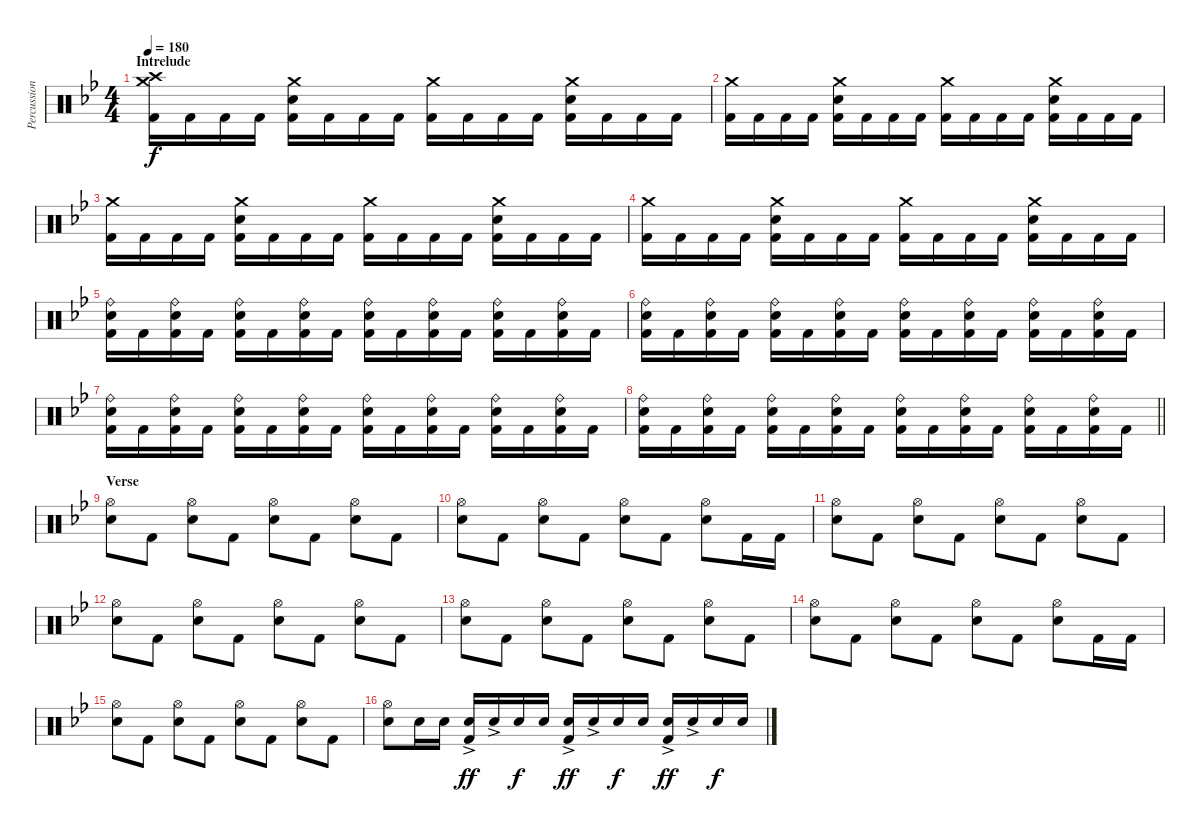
\track ("Percussion" "Percussion") {instrument percussion}
\staff {score}
\articulation defaults
\ts (4 4)
\section ("" "Intrelude")
\tempo 180
\clef neutral
\ks bb
("Crash medium (hit)" "Crash high (hit)" "Kick (hit) 2").16{dy f} "Kick (hit) 2".16 "Kick (hit) 2".16 "Kick (hit) 2".16 ("Crash medium (hit)" "Electric Snare (hit)" "Kick (hit) 2").16 "Kick (hit) 2".16 "Kick (hit) 2".16 "Kick (hit) 2".16 ("Crash medium (hit)" "Kick (hit) 2").16 "Kick (hit) 2".16 "Kick (hit) 2".16 "Kick (hit) 2".16 ("Crash medium (hit)" "Electric Snare (hit)" "Kick (hit) 2").16 "Kick (hit) 2".16 "Kick (hit) 2".16 "Kick (hit) 2".16 |
("Crash medium (hit)" "Kick (hit) 2").16 "Kick (hit) 2".16 "Kick (hit) 2".16 "Kick (hit) 2".16 ("Crash medium (hit)" "Electric Snare (hit)" "Kick (hit) 2").16 "Kick (hit) 2".16 "Kick (hit) 2".16 "Kick (hit) 2".16 ("Crash medium (hit)" "Kick (hit) 2").16 "Kick (hit) 2".16 "Kick (hit) 2".16 "Kick (hit) 2".16 ("Crash medium (hit)" "Electric Snare (hit)" "Kick (hit) 2").16 "Kick (hit) 2".16 "Kick (hit) 2".16 "Kick (hit) 2".16 |
("Crash medium (hit)" "Kick (hit) 2").16 "Kick (hit) 2".16 "Kick (hit) 2".16 "Kick (hit) 2".16 ("Crash medium (hit)" "Electric Snare (hit)" "Kick (hit) 2").16 "Kick (hit) 2".16 "Kick (hit) 2".16 "Kick (hit) 2".16 ("Crash medium (hit)" "Kick (hit) 2").16 "Kick (hit) 2".16 "Kick (hit) 2".16 "Kick (hit) 2".16 ("Crash medium (hit)" "Electric Snare (hit)" "Kick (hit) 2").16 "Kick (hit) 2".16 "Kick (hit) 2".16 "Kick (hit) 2".16 |
("Crash medium (hit)" "Kick (hit) 2").16 "Kick (hit) 2".16 "Kick (hit) 2".16 "Kick (hit) 2".16 ("Crash medium (hit)" "Electric Snare (hit)" "Kick (hit) 2").16 "Kick (hit) 2".16 "Kick (hit) 2".16 "Kick (hit) 2".16 ("Crash medium (hit)" "Kick (hit) 2").16 "Kick (hit) 2".16 "Kick (hit) 2".16 "Kick (hit) 2".16 ("Crash medium (hit)" "Electric Snare (hit)" "Kick (hit) 2").16 "Kick (hit) 2".16 "Kick (hit) 2".16 "Kick (hit) 2".16 |
("Ride (bell)" "Electric Snare (hit)" "Kick (hit) 2").16 "Kick (hit) 2".16 ("Ride (bell)" "Electric Snare (hit)" "Kick (hit) 2").16 "Kick (hit) 2".16 ("Ride (bell)" "Electric Snare (hit)" "Kick (hit) 2").16 "Kick (hit) 2".16 ("Ride (bell)" "Electric Snare (hit)" "Kick (hit) 2").16 "Kick (hit) 2".16 ("Ride (bell)" "Electric Snare (hit)" "Kick (hit) 2").16 "Kick (hit) 2".16 ("Ride (bell)" "Electric Snare (hit)" "Kick (hit) 2").16 "Kick (hit) 2".16 ("Ride (bell)" "Electric Snare (hit)" "Kick (hit) 2").16 "Kick (hit) 2".16 ("Ride (bell)" "Electric Snare (hit)" "Kick (hit) 2").16 "Kick (hit) 2".16 |
("Ride (bell)" "Electric Snare (hit)" "Kick (hit) 2").16 "Kick (hit) 2".16 ("Ride (bell)" "Electric Snare (hit)" "Kick (hit) 2").16 "Kick (hit) 2".16 ("Ride (bell)" "Electric Snare (hit)" "Kick (hit) 2").16 "Kick (hit) 2".16 ("Ride (bell)" "Electric Snare (hit)" "Kick (hit) 2").16 "Kick (hit) 2".16 ("Ride (bell)" "Electric Snare (hit)" "Kick (hit) 2").16 "Kick (hit) 2".16 ("Ride (bell)" "Electric Snare (hit)" "Kick (hit) 2").16 "Kick (hit) 2".16 ("Ride (bell)" "Electric Snare (hit)" "Kick (hit) 2").16 "Kick (hit) 2".16 ("Ride (bell)" "Electric Snare (hit)" "Kick (hit) 2").16 "Kick (hit) 2".16 |
("Ride (bell)" "Electric Snare (hit)" "Kick (hit) 2").16 "Kick (hit) 2".16 ("Ride (bell)" "Electric Snare (hit)" "Kick (hit) 2").16 "Kick (hit) 2".16 ("Ride (bell)" "Electric Snare (hit)" "Kick (hit) 2").16 "Kick (hit) 2".16 ("Ride (bell)" "Electric Snare (hit)" "Kick (hit) 2").16 "Kick (hit) 2".16 ("Ride (bell)" "Electric Snare (hit)" "Kick (hit) 2").16 "Kick (hit) 2".16 ("Ride (bell)" "Electric Snare (hit)" "Kick (hit) 2").16 "Kick (hit) 2".16 ("Ride (bell)" "Electric Snare (hit)" "Kick (hit) 2").16 "Kick (hit) 2".16 ("Ride (bell)" "Electric Snare (hit)" "Kick (hit) 2").16 "Kick (hit) 2".16 |
\barLineRight lightlight
("Ride (bell)" "Electric Snare (hit)" "Kick (hit) 2").16 "Kick (hit) 2".16 ("Ride (bell)" "Electric Snare (hit)" "Kick (hit) 2").16 "Kick (hit) 2".16 ("Ride (bell)" "Electric Snare (hit)" "Kick (hit) 2").16 "Kick (hit) 2".16 ("Ride (bell)" "Electric Snare (hit)" "Kick (hit) 2").16 "Kick (hit) 2".16 ("Ride (bell)" "Electric Snare (hit)" "Kick (hit) 2").16 "Kick (hit) 2".16 ("Ride (bell)" "Electric Snare (hit)" "Kick (hit) 2").16 "Kick (hit) 2".16 ("Ride (bell)" "Electric Snare (hit)" "Kick (hit) 2").16 "Kick (hit) 2".16 ("Ride (bell)" "Electric Snare (hit)" "Kick (hit) 2").16 "Kick (hit) 2".16 |
\section ("" "Verse")
("Hi-Hat (open)" "Electric Snare (hit)").8 "Kick (hit) 2".8 ("Hi-Hat (open)" "Electric Snare (hit)").8 "Kick (hit) 2".8 ("Hi-Hat (open)" "Electric Snare (hit)").8 "Kick (hit) 2".8 ("Hi-Hat (open)" "Electric Snare (hit)").8 "Kick (hit) 2".8 |
("Hi-Hat (open)" "Electric Snare (hit)").8 "Kick (hit) 2".8 ("Hi-Hat (open)" "Electric Snare (hit)").8 "Kick (hit) 2".8 ("Hi-Hat (open)" "Electric Snare (hit)").8 "Kick (hit) 2".8 ("Hi-Hat (open)" "Electric Snare (hit)").8 "Kick (hit) 2".16 "Kick (hit) 2".16 |
("Hi-Hat (open)" "Electric Snare (hit)").8 "Kick (hit) 2".8 ("Hi-Hat (open)" "Electric Snare (hit)").8 "Kick (hit) 2".8 ("Hi-Hat (open)" "Electric Snare (hit)").8 "Kick (hit) 2".8 ("Hi-Hat (open)" "Electric Snare (hit)").8 "Kick (hit) 2".8 |
("Hi-Hat (open)" "Electric Snare (hit)").8 "Kick (hit) 2".8 ("Hi-Hat (open)" "Electric Snare (hit)").8 "Kick (hit) 2".8 ("Hi-Hat (open)" "Electric Snare (hit)").8 "Kick (hit) 2".8 ("Hi-Hat (open)" "Electric Snare (hit)").8 "Kick (hit) 2".8 |
("Hi-Hat (open)" "Electric Snare (hit)").8 "Kick (hit) 2".8 ("Hi-Hat (open)" "Electric Snare (hit)").8 "Kick (hit) 2".8 ("Hi-Hat (open)" "Electric Snare (hit)").8 "Kick (hit) 2".8 ("Hi-Hat (open)" "Electric Snare (hit)").8 "Kick (hit) 2".8 |
("Hi-Hat (open)" "Electric Snare (hit)").8 "Kick (hit) 2".8 ("Hi-Hat (open)" "Electric Snare (hit)").8 "Kick (hit) 2".8 ("Hi-Hat (open)" "Electric Snare (hit)").8 "Kick (hit) 2".8 ("Hi-Hat (open)" "Electric Snare (hit)").8 "Kick (hit) 2".16 "Kick (hit) 2".16 |
("Hi-Hat (open)" "Electric Snare (hit)").8 "Kick (hit) 2".8 ("Hi-Hat (open)" "Electric Snare (hit)").8 "Kick (hit) 2".8 ("Hi-Hat (open)" "Electric Snare (hit)").8 "Kick (hit) 2".8 ("Hi-Hat (open)" "Electric Snare (hit)").8 "Kick (hit) 2".8 |
("Hi-Hat (open)" "Electric Snare (hit)").8 "Electric Snare (hit)".16 "Electric Snare (hit)".16 ("Electric Snare (hit)"{ac} "Kick (hit) 2").16{dy ff} "Electric Snare (hit)"{ac}.16 "Electric Snare (hit)".16{dy f} "Electric Snare (hit)".16 ("Electric Snare (hit)"{ac} "Kick (hit) 2").16{dy ff} "Electric Snare (hit)"{ac}.16 "Electric Snare (hit)".16{dy f} "Electric Snare (hit)".16 ("Electric Snare (hit)"{ac} "Kick (hit) 2").16{dy ff} "Electric Snare (hit)"{ac}.16 "Electric Snare (hit)".16{dy f} "Electric Snare (hit)".16
